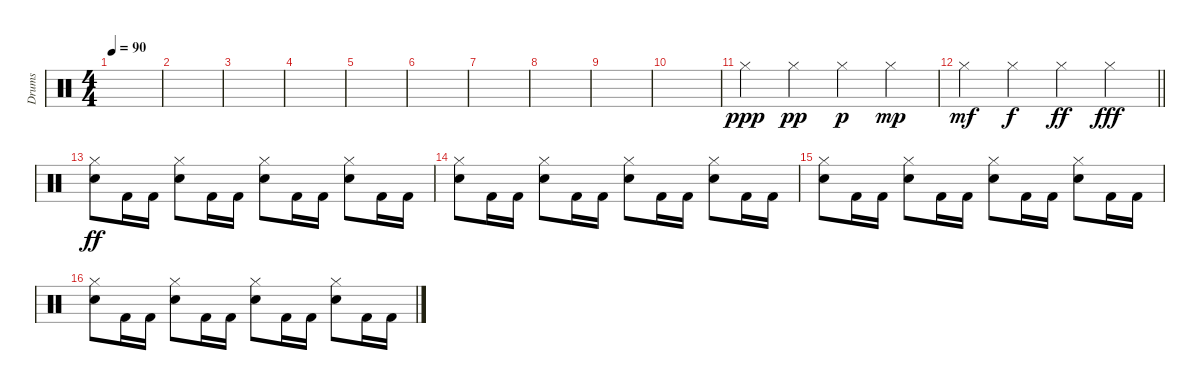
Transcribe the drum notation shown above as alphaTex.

\track ("Drums" "Drums") {instrument percussion}
\staff {score}
\articulation defaults
\ts (4 4)
\tempo 90
\clef neutral
\ks c
|
|
|
|
|
|
|
|
|
|
"Hi-Hat (closed)".4{dy ppp} "Hi-Hat (closed)".4{dy pp} "Hi-Hat (closed)".4{dy p} "Hi-Hat (closed)".4{dy mp} |
\barLineRight lightlight "Hi-Hat (closed)".4{dy mf} "Hi-Hat (closed)".4{dy f} "Hi-Hat (closed)".4{dy ff} "Hi-Hat (closed)".4{dy fff}
|
\section ("" "")
("Hi-Hat (closed)" "Snare (hit) 2").8{dy ff} "Kick (hit) 2".16 "Kick (hit) 2".16 ("Hi-Hat (closed)" "Snare (hit) 2").8 "Kick (hit) 2".16 "Kick (hit) 2".16 ("Hi-Hat (closed)" "Snare (hit) 2").8 "Kick (hit) 2".16 "Kick (hit) 2".16 ("Hi-Hat (closed)" "Snare (hit) 2").8 "Kick (hit) 2".16 "Kick (hit) 2".16 |
("Hi-Hat (closed)" "Snare (hit) 2").8 "Kick (hit) 2".16 "Kick (hit) 2".16 ("Hi-Hat (closed)" "Snare (hit) 2").8 "Kick (hit) 2".16 "Kick (hit) 2".16 ("Hi-Hat (closed)" "Snare (hit) 2").8 "Kick (hit) 2".16 "Kick (hit) 2".16 ("Hi-Hat (closed)" "Snare (hit) 2").8 "Kick (hit) 2".16 "Kick (hit) 2".16 |
("Hi-Hat (closed)" "Snare (hit) 2").8 "Kick (hit) 2".16 "Kick (hit) 2".16 ("Hi-Hat (closed)" "Snare (hit) 2").8 "Kick (hit) 2".16 "Kick (hit) 2".16 ("Hi-Hat (closed)" "Snare (hit) 2").8 "Kick (hit) 2".16 "Kick (hit) 2".16 ("Hi-Hat (closed)" "Snare (hit) 2").8 "Kick (hit) 2".16 "Kick (hit) 2".16 |
("Hi-Hat (closed)" "Snare (hit) 2").8 "Kick (hit) 2".16 "Kick (hit) 2".16 ("Hi-Hat (closed)" "Snare (hit) 2").8 "Kick (hit) 2".16 "Kick (hit) 2".16 ("Hi-Hat (closed)" "Snare (hit) 2").8 "Kick (hit) 2".16 "Kick (hit) 2".16 ("Hi-Hat (closed)" "Snare (hit) 2").8 "Kick (hit) 2".16 "Kick (hit) 2".16
